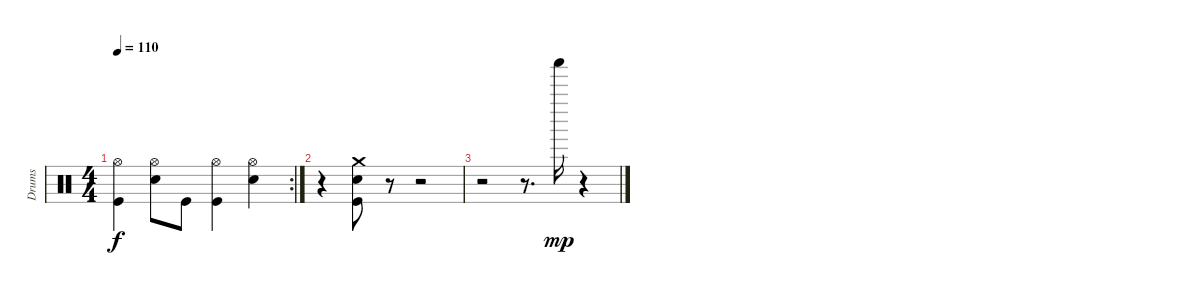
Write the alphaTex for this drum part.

\track ("Drums" "Drums") {instrument percussion}
\staff {score}
\articulation defaults
\rc 2
\ts (4 4)
\tempo 110
\clef neutral
\ks c
("Hi-Hat (open)" "Kick (hit)").4{dy f} ("Hi-Hat (open)" "Snare (hit) 2").8 "Kick (hit)".8 ("Hi-Hat (open)" "Kick (hit)").4 ("Hi-Hat (open)" "Snare (hit) 2").4 |
r.4 ("Crash medium (hit)" "Snare (hit) 2" "Kick (hit)").8 r.8 r.2 |
r.2 r.8{d} "Shaker (hit)".16{dy mp} r.4
